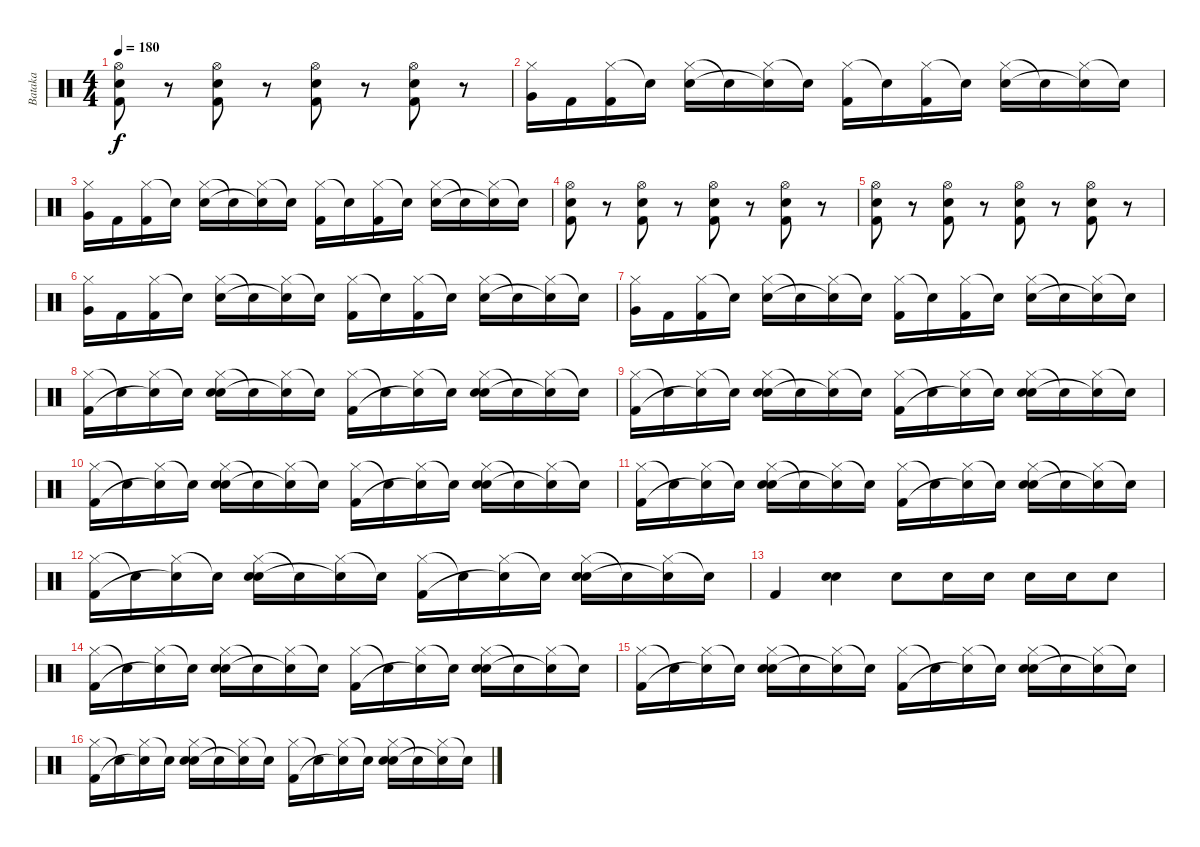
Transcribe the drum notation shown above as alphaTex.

\track ("Bataka" "Bataka") {instrument percussion}
\staff {score}
\articulation defaults
\ts (4 4)
\tempo 180
\clef neutral
\ks c
("Hi-Hat (open)" "Electric Snare (hit)" "Kick (hit) 2").8{dy f} r.8 ("Hi-Hat (open)" "Electric Snare (hit)" "Kick (hit) 2").8 r.8 ("Hi-Hat (open)" "Electric Snare (hit)" "Kick (hit) 2").8 r.8 ("Hi-Hat (open)" "Electric Snare (hit)" "Kick (hit) 2").8 r.8 |
("Hi-Hat (closed)" "Very Low Tom (hit)").16 "Kick (hit) 2".16 ("Hi-Hat (closed)" "Kick (hit) 2").16 "Snare (hit)"{t}.16 ("Hi-Hat (closed)" "Electric Snare (hit)").16 "Snare (hit)"{t}.16 ("Hi-Hat (closed)" "Electric Snare (hit)"{t}).16 "Snare (hit)"{t}.16 ("Hi-Hat (closed)" "Kick (hit) 2").16 "Snare (hit)"{t}.16 ("Hi-Hat (closed)" "Kick (hit) 2").16 "Snare (hit)"{t}.16 ("Hi-Hat (closed)" "Electric Snare (hit)").16 "Snare (hit)"{t}.16 ("Hi-Hat (closed)" "Snare (hit)"{t}).16 "Snare (hit)"{t}.16 |
("Hi-Hat (closed)" "Very Low Tom (hit)").16 "Kick (hit) 2".16 ("Hi-Hat (closed)" "Kick (hit) 2").16 "Snare (hit)"{t}.16 ("Hi-Hat (closed)" "Electric Snare (hit)").16 "Snare (hit)"{t}.16 ("Hi-Hat (closed)" "Electric Snare (hit)"{t}).16 "Snare (hit)"{t}.16 ("Hi-Hat (closed)" "Kick (hit) 2").16 "Snare (hit)"{t}.16 ("Hi-Hat (closed)" "Kick (hit) 2").16 "Snare (hit)"{t}.16 ("Hi-Hat (closed)" "Electric Snare (hit)").16 "Snare (hit)"{t}.16 ("Hi-Hat (closed)" "Snare (hit)"{t}).16 "Snare (hit)"{t}.16 |
("Hi-Hat (open)" "Electric Snare (hit)" "Kick (hit) 2").8 r.8 ("Hi-Hat (open)" "Electric Snare (hit)" "Kick (hit) 2").8 r.8 ("Hi-Hat (open)" "Electric Snare (hit)" "Kick (hit) 2").8 r.8 ("Hi-Hat (open)" "Electric Snare (hit)" "Kick (hit) 2").8 r.8 |
("Hi-Hat (open)" "Electric Snare (hit)" "Kick (hit) 2").8 r.8 ("Hi-Hat (open)" "Electric Snare (hit)" "Kick (hit) 2").8 r.8 ("Hi-Hat (open)" "Electric Snare (hit)" "Kick (hit) 2").8 r.8 ("Hi-Hat (open)" "Electric Snare (hit)" "Kick (hit) 2").8 r.8 |
("Hi-Hat (closed)" "Very Low Tom (hit)").16 "Kick (hit) 2".16 ("Hi-Hat (closed)" "Kick (hit) 2").16 "Snare (hit)"{t}.16 ("Hi-Hat (closed)" "Electric Snare (hit)").16 "Snare (hit)"{t}.16 ("Hi-Hat (closed)" "Electric Snare (hit)"{t}).16 "Snare (hit)"{t}.16 ("Hi-Hat (closed)" "Kick (hit) 2").16 "Snare (hit)"{t}.16 ("Hi-Hat (closed)" "Kick (hit) 2").16 "Snare (hit)"{t}.16 ("Hi-Hat (closed)" "Electric Snare (hit)").16 "Snare (hit)"{t}.16 ("Hi-Hat (closed)" "Snare (hit)"{t}).16 "Snare (hit)"{t}.16 |
("Hi-Hat (closed)" "Very Low Tom (hit)").16 "Kick (hit) 2".16 ("Hi-Hat (closed)" "Kick (hit) 2").16 "Snare (hit)"{t}.16 ("Hi-Hat (closed)" "Electric Snare (hit)").16 "Snare (hit)"{t}.16 ("Hi-Hat (closed)" "Electric Snare (hit)"{t}).16 "Snare (hit)"{t}.16 ("Hi-Hat (closed)" "Kick (hit) 2").16 "Snare (hit)"{t}.16 ("Hi-Hat (closed)" "Kick (hit) 2").16 "Snare (hit)"{t}.16 ("Hi-Hat (closed)" "Electric Snare (hit)").16 "Snare (hit)"{t}.16 ("Hi-Hat (closed)" "Snare (hit)"{t}).16 "Snare (hit)"{t}.16 |
("Hi-Hat (closed)" "Kick (hit) 2").16 "Snare (hit)"{t}.16 ("Hi-Hat (closed)" "Snare (hit)"{t}).16 "Snare (hit)"{t}.16 ("Hi-Hat (closed)" "Electric Snare (hit)" "Snare (hit) 2").16 "Snare (hit)"{t}.16 ("Hi-Hat (closed)" "Snare (hit)"{t}).16 "Snare (hit)"{t}.16 ("Hi-Hat (closed)" "Kick (hit) 2").16 "Snare (hit)"{t}.16 ("Hi-Hat (closed)" "Snare (hit)"{t}).16 "Snare (hit)"{t}.16 ("Hi-Hat (closed)" "Electric Snare (hit)" "Snare (hit) 2").16 "Snare (hit)"{t}.16 ("Hi-Hat (closed)" "Snare (hit)"{t}).16 "Snare (hit)"{t}.16 |
("Hi-Hat (closed)" "Kick (hit) 2").16 "Snare (hit)"{t}.16 ("Hi-Hat (closed)" "Snare (hit)"{t}).16 "Snare (hit)"{t}.16 ("Hi-Hat (closed)" "Electric Snare (hit)" "Snare (hit) 2").16 "Snare (hit)"{t}.16 ("Hi-Hat (closed)" "Snare (hit)"{t}).16 "Snare (hit)"{t}.16 ("Hi-Hat (closed)" "Kick (hit) 2").16 "Snare (hit)"{t}.16 ("Hi-Hat (closed)" "Snare (hit)"{t}).16 "Snare (hit)"{t}.16 ("Hi-Hat (closed)" "Electric Snare (hit)" "Snare (hit) 2").16 "Snare (hit)"{t}.16 ("Hi-Hat (closed)" "Snare (hit)"{t}).16 "Snare (hit)"{t}.16 |
("Hi-Hat (closed)" "Kick (hit) 2").16 "Snare (hit)"{t}.16 ("Hi-Hat (closed)" "Snare (hit)"{t}).16 "Snare (hit)"{t}.16 ("Hi-Hat (closed)" "Electric Snare (hit)" "Snare (hit) 2").16 "Snare (hit)"{t}.16 ("Hi-Hat (closed)" "Snare (hit)"{t}).16 "Snare (hit)"{t}.16 ("Hi-Hat (closed)" "Kick (hit) 2").16 "Snare (hit)"{t}.16 ("Hi-Hat (closed)" "Snare (hit)"{t}).16 "Snare (hit)"{t}.16 ("Hi-Hat (closed)" "Electric Snare (hit)" "Snare (hit) 2").16 "Snare (hit)"{t}.16 ("Hi-Hat (closed)" "Snare (hit)"{t}).16 "Snare (hit)"{t}.16 |
("Hi-Hat (closed)" "Kick (hit) 2").16 "Snare (hit)"{t}.16 ("Hi-Hat (closed)" "Snare (hit)"{t}).16 "Snare (hit)"{t}.16 ("Hi-Hat (closed)" "Electric Snare (hit)" "Snare (hit) 2").16 "Snare (hit)"{t}.16 ("Hi-Hat (closed)" "Snare (hit)"{t}).16 "Snare (hit)"{t}.16 ("Hi-Hat (closed)" "Kick (hit) 2").16 "Snare (hit)"{t}.16 ("Hi-Hat (closed)" "Snare (hit)"{t}).16 "Snare (hit)"{t}.16 ("Hi-Hat (closed)" "Electric Snare (hit)" "Snare (hit) 2").16 "Snare (hit)"{t}.16 ("Hi-Hat (closed)" "Snare (hit)"{t}).16 "Snare (hit)"{t}.16 |
("Hi-Hat (closed)" "Kick (hit) 2").16 "Snare (hit)"{t}.16 ("Hi-Hat (closed)" "Snare (hit)"{t}).16 "Snare (hit)"{t}.16 ("Hi-Hat (closed)" "Electric Snare (hit)" "Snare (hit) 2").16 "Snare (hit)"{t}.16 ("Hi-Hat (closed)" "Snare (hit)"{t}).16 "Snare (hit)"{t}.16 ("Hi-Hat (closed)" "Kick (hit) 2").16 "Snare (hit)"{t}.16 ("Hi-Hat (closed)" "Snare (hit)"{t}).16 "Snare (hit)"{t}.16 ("Hi-Hat (closed)" "Electric Snare (hit)" "Snare (hit) 2").16 "Snare (hit)"{t}.16 ("Hi-Hat (closed)" "Snare (hit)"{t}).16 "Snare (hit)"{t}.16 |
"Kick (hit) 2".4 ("Electric Snare (hit)" "Snare (hit) 2").4 "Electric Snare (hit)".8 "Electric Snare (hit)".16 "Electric Snare (hit)".16 "Electric Snare (hit)".16 "Electric Snare (hit)".16 "Electric Snare (hit)".8 |
("Hi-Hat (closed)" "Kick (hit) 2").16 "Snare (hit)"{t}.16 ("Hi-Hat (closed)" "Snare (hit)"{t}).16 "Snare (hit)"{t}.16 ("Hi-Hat (closed)" "Electric Snare (hit)" "Snare (hit) 2").16 "Snare (hit)"{t}.16 ("Hi-Hat (closed)" "Snare (hit)"{t}).16 "Snare (hit)"{t}.16 ("Hi-Hat (closed)" "Kick (hit) 2").16 "Snare (hit)"{t}.16 ("Hi-Hat (closed)" "Snare (hit)"{t}).16 "Snare (hit)"{t}.16 ("Hi-Hat (closed)" "Electric Snare (hit)" "Snare (hit) 2").16 "Snare (hit)"{t}.16 ("Hi-Hat (closed)" "Snare (hit)"{t}).16 "Snare (hit)"{t}.16 |
("Hi-Hat (closed)" "Kick (hit) 2").16 "Snare (hit)"{t}.16 ("Hi-Hat (closed)" "Snare (hit)"{t}).16 "Snare (hit)"{t}.16 ("Hi-Hat (closed)" "Electric Snare (hit)" "Snare (hit) 2").16 "Snare (hit)"{t}.16 ("Hi-Hat (closed)" "Snare (hit)"{t}).16 "Snare (hit)"{t}.16 ("Hi-Hat (closed)" "Kick (hit) 2").16 "Snare (hit)"{t}.16 ("Hi-Hat (closed)" "Snare (hit)"{t}).16 "Snare (hit)"{t}.16 ("Hi-Hat (closed)" "Electric Snare (hit)" "Snare (hit) 2").16 "Snare (hit)"{t}.16 ("Hi-Hat (closed)" "Snare (hit)"{t}).16 "Snare (hit)"{t}.16 |
("Hi-Hat (closed)" "Kick (hit) 2").16 "Snare (hit)"{t}.16 ("Hi-Hat (closed)" "Snare (hit)"{t}).16 "Snare (hit)"{t}.16 ("Hi-Hat (closed)" "Electric Snare (hit)" "Snare (hit) 2").16 "Snare (hit)"{t}.16 ("Hi-Hat (closed)" "Snare (hit)"{t}).16 "Snare (hit)"{t}.16 ("Hi-Hat (closed)" "Kick (hit) 2").16 "Snare (hit)"{t}.16 ("Hi-Hat (closed)" "Snare (hit)"{t}).16 "Snare (hit)"{t}.16 ("Hi-Hat (closed)" "Electric Snare (hit)" "Snare (hit) 2").16 "Snare (hit)"{t}.16 ("Hi-Hat (closed)" "Snare (hit)"{t}).16 "Snare (hit)"{t}.16
